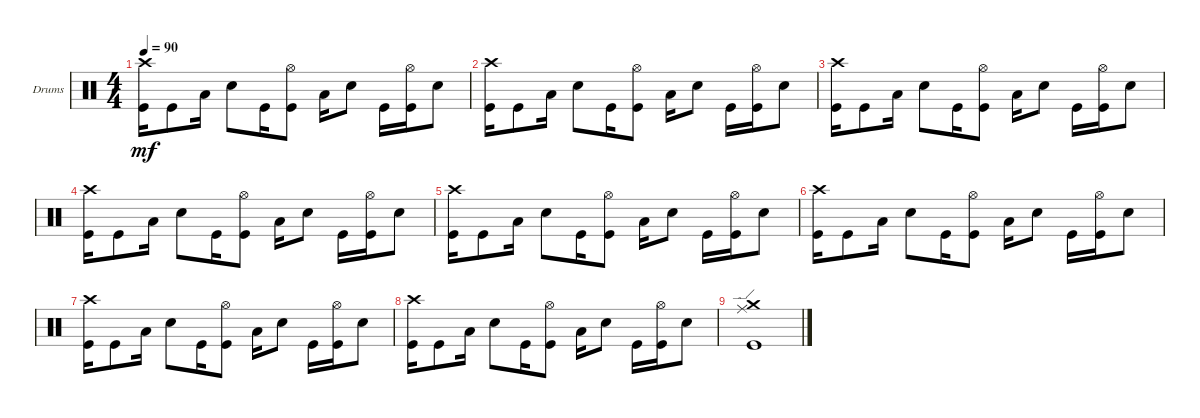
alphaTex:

\bracketExtendMode groupsimilarinstruments
\firstSystemTrackNameOrientation horizontal
\otherSystemsTrackNameOrientation horizontal
\track ("Drumkit" "Drums") {instrument percussion}
\staff {score}
\articulation defaults
\ts (4 4)
\tempo 90
\clef neutral
\ks c
("Kick (hit)" "Crash high (hit)").16{dy mf} "Kick (hit)".8 "Low Tom (hit)".16 "Snare (hit) 2".8 "Kick (hit)".16 ("Kick (hit)" "Hi-Hat (open)").8 "Low Tom (hit)".16 "Snare (hit) 2".8 "Kick (hit)".16 ("Kick (hit)" "Hi-Hat (open)").16 "Snare (hit) 2".8 |
("Kick (hit)" "Crash high (hit)").16 "Kick (hit)".8 "Low Tom (hit)".16 "Snare (hit) 2".8 "Kick (hit)".16 ("Kick (hit)" "Hi-Hat (open)").8 "Low Tom (hit)".16 "Snare (hit) 2".8 "Kick (hit)".16 ("Kick (hit)" "Hi-Hat (open)").16 "Snare (hit) 2".8 |
("Kick (hit)" "Crash high (hit)").16 "Kick (hit)".8 "Low Tom (hit)".16 "Snare (hit) 2".8 "Kick (hit)".16 ("Kick (hit)" "Hi-Hat (open)").8 "Low Tom (hit)".16 "Snare (hit) 2".8 "Kick (hit)".16 ("Kick (hit)" "Hi-Hat (open)").16 "Snare (hit) 2".8 |
("Kick (hit)" "Crash high (hit)").16 "Kick (hit)".8 "Low Tom (hit)".16 "Snare (hit) 2".8 "Kick (hit)".16 ("Kick (hit)" "Hi-Hat (open)").8 "Low Tom (hit)".16 "Snare (hit) 2".8 "Kick (hit)".16 ("Kick (hit)" "Hi-Hat (open)").16 "Snare (hit) 2".8 |
("Kick (hit)" "Crash high (hit)").16 "Kick (hit)".8 "Low Tom (hit)".16 "Snare (hit) 2".8 "Kick (hit)".16 ("Kick (hit)" "Hi-Hat (open)").8 "Low Tom (hit)".16 "Snare (hit) 2".8 "Kick (hit)".16 ("Kick (hit)" "Hi-Hat (open)").16 "Snare (hit) 2".8 |
("Kick (hit)" "Crash high (hit)").16 "Kick (hit)".8 "Low Tom (hit)".16 "Snare (hit) 2".8 "Kick (hit)".16 ("Kick (hit)" "Hi-Hat (open)").8 "Low Tom (hit)".16 "Snare (hit) 2".8 "Kick (hit)".16 ("Kick (hit)" "Hi-Hat (open)").16 "Snare (hit) 2".8 |
("Kick (hit)" "Crash high (hit)").16 "Kick (hit)".8 "Low Tom (hit)".16 "Snare (hit) 2".8 "Kick (hit)".16 ("Kick (hit)" "Hi-Hat (open)").8 "Low Tom (hit)".16 "Snare (hit) 2".8 "Kick (hit)".16 ("Kick (hit)" "Hi-Hat (open)").16 "Snare (hit) 2".8 |
("Kick (hit)" "Crash high (hit)").16 "Kick (hit)".8 "Low Tom (hit)".16 "Snare (hit) 2".8 "Kick (hit)".16 ("Kick (hit)" "Hi-Hat (open)").8 "Low Tom (hit)".16 "Snare (hit) 2".8 "Kick (hit)".16 ("Kick (hit)" "Hi-Hat (open)").16 "Snare (hit) 2".8 |
\scale
0.333333 ("Kick (hit)" "Crash medium (hit)" "Ride (edge)").1 |
\scale
0.333333 |
\scale
0.333333 |
\scale
0.333333 |
\scale
0.333333 |
\scale
0.333333 |
\scale
0.333333 |
\scale
0.333333
